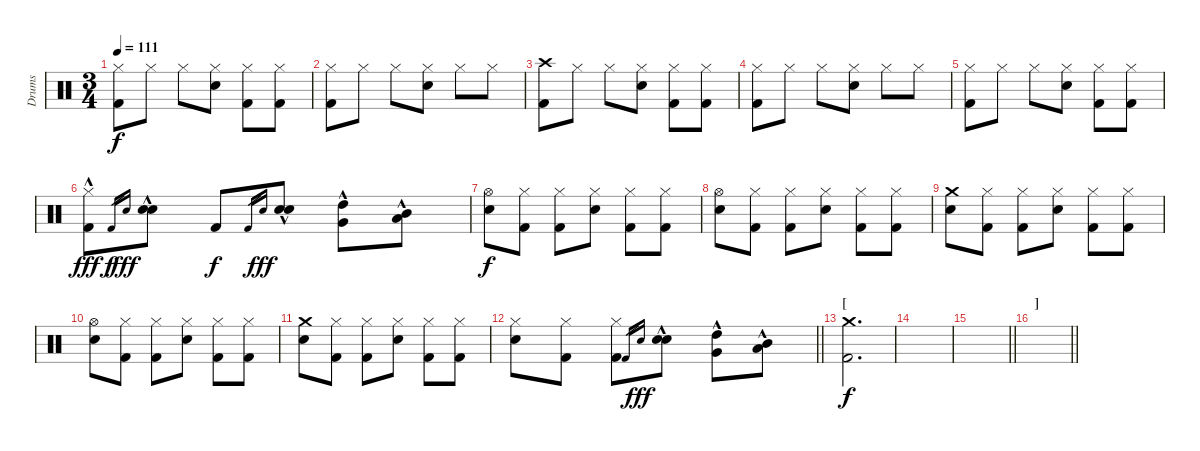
\track ("Drums" "Drums") {instrument percussion}
\staff {score}
\articulation defaults
\ts (3 4)
\tempo 111
\clef neutral
\ks c
("Hi-Hat (closed)" "Kick (hit) 2").8{dy f} "Hi-Hat (closed)".8 "Hi-Hat (closed)".8 ("Hi-Hat (closed)" "Snare (hit) 2").8 ("Hi-Hat (closed)" "Kick (hit) 2").8 ("Hi-Hat (closed)" "Kick (hit) 2").8 |
("Hi-Hat (closed)" "Kick (hit) 2").8 "Hi-Hat (closed)".8 "Hi-Hat (closed)".8 ("Hi-Hat (closed)" "Snare (hit) 2").8 "Hi-Hat (closed)".8 "Hi-Hat (closed)".8 |
("Crash high (hit)" "Kick (hit) 2").8 "Hi-Hat (closed)".8 "Hi-Hat (closed)".8 ("Hi-Hat (closed)" "Snare (hit) 2").8 ("Hi-Hat (closed)" "Kick (hit) 2").8 ("Hi-Hat (closed)" "Kick (hit) 2").8 |
("Hi-Hat (closed)" "Kick (hit) 2").8 "Hi-Hat (closed)".8 "Hi-Hat (closed)".8 ("Hi-Hat (closed)" "Snare (hit) 2").8 "Hi-Hat (closed)".8 "Hi-Hat (closed)".8 |
("Hi-Hat (closed)" "Kick (hit) 2").8 "Hi-Hat (closed)".8 "Hi-Hat (closed)".8 ("Hi-Hat (closed)" "Snare (hit) 2").8 ("Hi-Hat (closed)" "Kick (hit) 2").8 ("Hi-Hat (closed)" "Kick (hit) 2").8 |
("Hi-Hat (closed)" "Kick (hit) 2"{hac}).8{dy fff} "Kick (hit) 2".16{gr dy f} "Snare (hit) 2".16{gr dy fff} ("Snare (hit) 2"{hac} "Electric Snare (hit)"{hac}).8 "Kick (hit) 2".8{dy f} "Kick (hit) 2".16{gr} "Snare (hit) 2".16{gr dy fff} ("Snare (hit) 2"{hac} "Electric Snare (hit)"{hac}).8 ("High Tom (hit)"{hac} "Very Low Tom (hit)"{hac}).8 ("Mid Tom (hit)"{hac} "Low Floor Tom (hit)"{hac}).8 |
("Hi-Hat (open)" "Snare (hit) 2").8{dy f} ("Hi-Hat (closed)" "Kick (hit) 2").8 ("Hi-Hat (closed)" "Kick (hit) 2").8 ("Hi-Hat (closed)" "Snare (hit) 2").8 ("Hi-Hat (closed)" "Kick (hit) 2").8 ("Hi-Hat (closed)" "Kick (hit) 2").8 |
("Hi-Hat (open)" "Snare (hit) 2").8 ("Hi-Hat (closed)" "Kick (hit) 2").8 ("Hi-Hat (closed)" "Kick (hit) 2").8 ("Hi-Hat (closed)" "Snare (hit) 2").8 ("Hi-Hat (closed)" "Kick (hit) 2").8 ("Hi-Hat (closed)" "Kick (hit) 2").8 |
("Crash medium (hit)" "Snare (hit) 2").8 ("Hi-Hat (closed)" "Kick (hit) 2").8 ("Hi-Hat (closed)" "Kick (hit) 2").8 ("Hi-Hat (closed)" "Snare (hit) 2").8 ("Hi-Hat (closed)" "Kick (hit) 2").8 ("Hi-Hat (closed)" "Kick (hit) 2").8 |
("Hi-Hat (open)" "Snare (hit) 2").8 ("Hi-Hat (closed)" "Kick (hit) 2").8 ("Hi-Hat (closed)" "Kick (hit) 2").8 ("Hi-Hat (closed)" "Snare (hit) 2").8 ("Hi-Hat (closed)" "Kick (hit) 2").8 ("Hi-Hat (closed)" "Kick (hit) 2").8 |
("Crash medium (hit)" "Snare (hit) 2").8 ("Hi-Hat (closed)" "Kick (hit) 2").8 ("Hi-Hat (closed)" "Kick (hit) 2").8 ("Hi-Hat (closed)" "Snare (hit) 2").8 ("Hi-Hat (closed)" "Kick (hit) 2").8 ("Hi-Hat (closed)" "Kick (hit) 2").8 |
\barLineRight lightlight
("Hi-Hat (closed)" "Snare (hit) 2").8 ("Hi-Hat (closed)" "Kick (hit) 2").8 ("Hi-Hat (closed)" "Kick (hit) 2").8 "Kick (hit) 2".16{gr} "Snare (hit) 2".16{gr dy fff} ("Snare (hit) 2"{hac} "Electric Snare (hit)"{hac}).8 ("High Tom (hit)"{hac} "Very Low Tom (hit)"{hac}).8 ("Mid Tom (hit)"{hac} "Low Floor Tom (hit)"{hac}).8 |
\section ("" "[")
("Crash medium (hit)" "Kick (hit) 2").2{d dy f} |
|
\barLineRight lightlight
|
\section ("" "]")
\barLineRight lightlight
